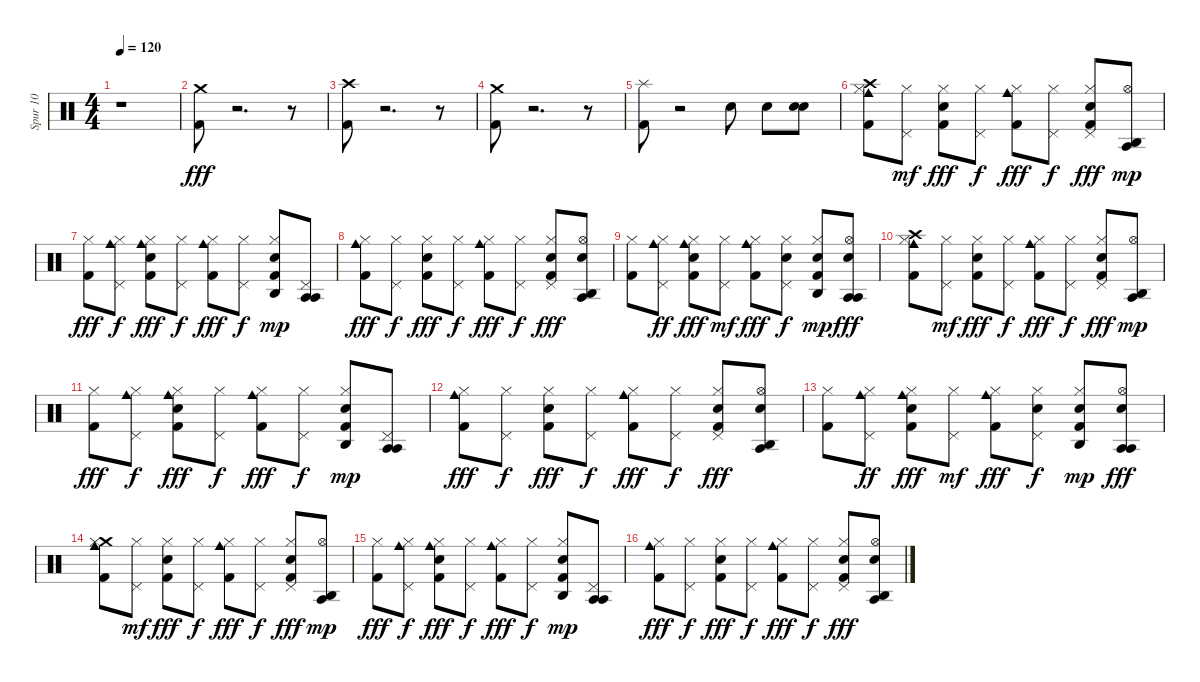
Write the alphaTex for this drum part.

\track ("Spur 10" "Spur 10") {instrument percussion}
\staff {score}
\articulation defaults
\ts (4 4)
\tempo 120
\clef neutral
\ks c
r.1{dy fff} |
("Kick (hit) 2" "Crash medium (hit)").8 r.2{d} r.8 |
("Kick (hit) 2" "Crash high (hit)").8 r.2{d} r.8 |
("Kick (hit) 2" "Crash medium (hit)").8 r.2{d} r.8 |
("Kick (hit) 2" "Splash (hit)").8 r.2 "Electric Snare (hit)".8 "Electric Snare (hit)".8 ("Electric Snare (hit)" "Electric Snare (hit)").8 |
("Cowbell medium (hit)" "Crash high (hit)" "Hi-Hat (closed)" "Kick (hit) 2").8 ("Hi-Hat (closed)" "Pedal Hi-Hat (hit)").8{dy mf} ("Electric Snare (hit)" "Kick (hit) 2" "Hi-Hat (closed)").8{dy fff} ("Hi-Hat (closed)" "Pedal Hi-Hat (hit)").8{dy f} ("Cowbell medium (hit)" "Kick (hit) 2" "Hi-Hat (closed)").8{dy fff} ("Hi-Hat (closed)" "Pedal Hi-Hat (hit)").8{dy f} ("Kick (hit) 2" "Electric Snare (hit)" "Hi-Hat (closed)" "Pedal Hi-Hat (hit)").8{dy fff} ("Agogo high (hit)" "Hi-Hat (open)" "Agogo tow (hit)").8{dy mp} |
("Kick (hit) 2" "Hi-Hat (closed)").8{dy fff} ("Cowbell medium (hit)" "Hi-Hat (closed)" "Pedal Hi-Hat (hit)").8{dy f} ("Hi-Hat (closed)" "Kick (hit) 2" "Electric Snare (hit)" "Cowbell medium (hit)").8{dy fff} ("Hi-Hat (closed)" "Pedal Hi-Hat (hit)").8{dy f} ("Cowbell medium (hit)" "Kick (hit) 2" "Hi-Hat (closed)").8{dy fff} ("Hi-Hat (closed)" "Pedal Hi-Hat (hit)").8{dy f} ("Electric Snare (hit)" "Kick (hit) 2" "Hi-Hat (closed)" "Agogo high (hit)").8{dy mp} ("Agogo tow (hit)" "Pedal Hi-Hat (hit)" "Agogo tow (hit)").8 |
("Cowbell medium (hit)" "Kick (hit) 2" "Hi-Hat (closed)").8{dy fff} ("Hi-Hat (closed)" "Pedal Hi-Hat (hit)").8{dy f} ("Electric Snare (hit)" "Kick (hit) 2" "Hi-Hat (closed)").8{dy fff} ("Hi-Hat (closed)" "Pedal Hi-Hat (hit)").8{dy f} ("Cowbell medium (hit)" "Hi-Hat (closed)" "Kick (hit) 2").8{dy fff} ("Hi-Hat (closed)" "Pedal Hi-Hat (hit)").8{dy f} ("Kick (hit) 2" "Electric Snare (hit)" "Hi-Hat (closed)" "Pedal Hi-Hat (hit)").8{dy fff} ("Agogo high (hit)" "Hi-Hat (open)" "Agogo tow (hit)" "Electric Snare (hit)").8 |
("Kick (hit) 2" "Hi-Hat (closed)").8 ("Cowbell medium (hit)" "Hi-Hat (closed)" "Pedal Hi-Hat (hit)").8{dy ff} ("Electric Snare (hit)" "Kick (hit) 2" "Hi-Hat (closed)" "Cowbell medium (hit)").8{dy fff} ("Hi-Hat (closed)" "Pedal Hi-Hat (hit)").8{dy mf} ("Cowbell medium (hit)" "Hi-Hat (closed)" "Kick (hit) 2").8{dy fff} ("Hi-Hat (closed)" "Pedal Hi-Hat (hit)" "Electric Snare (hit)").8{dy f} ("Hi-Hat (closed)" "Kick (hit) 2" "Electric Snare (hit)" "Agogo high (hit)").8{dy mp} ("Agogo tow (hit)" "Hi-Hat (open)" "Agogo tow (hit)" "Electric Snare (hit)").8{dy fff} |
("Cowbell medium (hit)" "Crash high (hit)" "Hi-Hat (closed)" "Kick (hit) 2").8 ("Hi-Hat (closed)" "Pedal Hi-Hat (hit)").8{dy mf} ("Electric Snare (hit)" "Kick (hit) 2" "Hi-Hat (closed)").8{dy fff} ("Hi-Hat (closed)" "Pedal Hi-Hat (hit)").8{dy f} ("Cowbell medium (hit)" "Kick (hit) 2" "Hi-Hat (closed)").8{dy fff} ("Hi-Hat (closed)" "Pedal Hi-Hat (hit)").8{dy f} ("Kick (hit) 2" "Electric Snare (hit)" "Hi-Hat (closed)" "Pedal Hi-Hat (hit)").8{dy fff} ("Agogo high (hit)" "Hi-Hat (open)" "Agogo tow (hit)").8{dy mp} |
("Kick (hit) 2" "Hi-Hat (closed)").8{dy fff} ("Cowbell medium (hit)" "Hi-Hat (closed)" "Pedal Hi-Hat (hit)").8{dy f} ("Hi-Hat (closed)" "Kick (hit) 2" "Electric Snare (hit)" "Cowbell medium (hit)").8{dy fff} ("Hi-Hat (closed)" "Pedal Hi-Hat (hit)").8{dy f} ("Cowbell medium (hit)" "Kick (hit) 2" "Hi-Hat (closed)").8{dy fff} ("Hi-Hat (closed)" "Pedal Hi-Hat (hit)").8{dy f} ("Electric Snare (hit)" "Kick (hit) 2" "Hi-Hat (closed)" "Agogo high (hit)").8{dy mp} ("Agogo tow (hit)" "Pedal Hi-Hat (hit)" "Agogo tow (hit)").8 |
("Cowbell medium (hit)" "Kick (hit) 2" "Hi-Hat (closed)").8{dy fff} ("Hi-Hat (closed)" "Pedal Hi-Hat (hit)").8{dy f} ("Electric Snare (hit)" "Kick (hit) 2" "Hi-Hat (closed)").8{dy fff} ("Hi-Hat (closed)" "Pedal Hi-Hat (hit)").8{dy f} ("Cowbell medium (hit)" "Hi-Hat (closed)" "Kick (hit) 2").8{dy fff} ("Hi-Hat (closed)" "Pedal Hi-Hat (hit)").8{dy f} ("Kick (hit) 2" "Electric Snare (hit)" "Hi-Hat (closed)" "Pedal Hi-Hat (hit)").8{dy fff} ("Agogo high (hit)" "Hi-Hat (open)" "Agogo tow (hit)" "Electric Snare (hit)").8 |
("Kick (hit) 2" "Hi-Hat (closed)").8 ("Cowbell medium (hit)" "Hi-Hat (closed)" "Pedal Hi-Hat (hit)").8{dy ff} ("Electric Snare (hit)" "Kick (hit) 2" "Hi-Hat (closed)" "Cowbell medium (hit)").8{dy fff} ("Hi-Hat (closed)" "Pedal Hi-Hat (hit)").8{dy mf} ("Cowbell medium (hit)" "Hi-Hat (closed)" "Kick (hit) 2").8{dy fff} ("Hi-Hat (closed)" "Pedal Hi-Hat (hit)" "Electric Snare (hit)").8{dy f} ("Hi-Hat (closed)" "Kick (hit) 2" "Electric Snare (hit)" "Agogo high (hit)").8{dy mp} ("Agogo tow (hit)" "Hi-Hat (open)" "Agogo tow (hit)" "Electric Snare (hit)").8{dy fff} |
("Cowbell medium (hit)" "Crash medium (hit)" "Hi-Hat (closed)" "Kick (hit) 2").8 ("Hi-Hat (closed)" "Pedal Hi-Hat (hit)").8{dy mf} ("Electric Snare (hit)" "Kick (hit) 2" "Hi-Hat (closed)").8{dy fff} ("Hi-Hat (closed)" "Pedal Hi-Hat (hit)").8{dy f} ("Cowbell medium (hit)" "Kick (hit) 2" "Hi-Hat (closed)").8{dy fff} ("Hi-Hat (closed)" "Pedal Hi-Hat (hit)").8{dy f} ("Kick (hit) 2" "Electric Snare (hit)" "Hi-Hat (closed)" "Pedal Hi-Hat (hit)").8{dy fff} ("Agogo high (hit)" "Hi-Hat (open)" "Agogo tow (hit)").8{dy mp} |
("Kick (hit) 2" "Hi-Hat (closed)").8{dy fff} ("Cowbell medium (hit)" "Hi-Hat (closed)" "Pedal Hi-Hat (hit)").8{dy f} ("Hi-Hat (closed)" "Kick (hit) 2" "Electric Snare (hit)" "Cowbell medium (hit)").8{dy fff} ("Hi-Hat (closed)" "Pedal Hi-Hat (hit)").8{dy f} ("Cowbell medium (hit)" "Kick (hit) 2" "Hi-Hat (closed)").8{dy fff} ("Hi-Hat (closed)" "Pedal Hi-Hat (hit)").8{dy f} ("Electric Snare (hit)" "Kick (hit) 2" "Hi-Hat (closed)" "Agogo high (hit)").8{dy mp} ("Agogo tow (hit)" "Pedal Hi-Hat (hit)" "Agogo tow (hit)").8 |
("Cowbell medium (hit)" "Kick (hit) 2" "Hi-Hat (closed)").8{dy fff} ("Hi-Hat (closed)" "Pedal Hi-Hat (hit)").8{dy f} ("Electric Snare (hit)" "Kick (hit) 2" "Hi-Hat (closed)").8{dy fff} ("Hi-Hat (closed)" "Pedal Hi-Hat (hit)").8{dy f} ("Cowbell medium (hit)" "Hi-Hat (closed)" "Kick (hit) 2").8{dy fff} ("Hi-Hat (closed)" "Pedal Hi-Hat (hit)").8{dy f} ("Kick (hit) 2" "Electric Snare (hit)" "Hi-Hat (closed)" "Pedal Hi-Hat (hit)").8{dy fff} ("Agogo high (hit)" "Hi-Hat (open)" "Agogo tow (hit)" "Electric Snare (hit)").8
